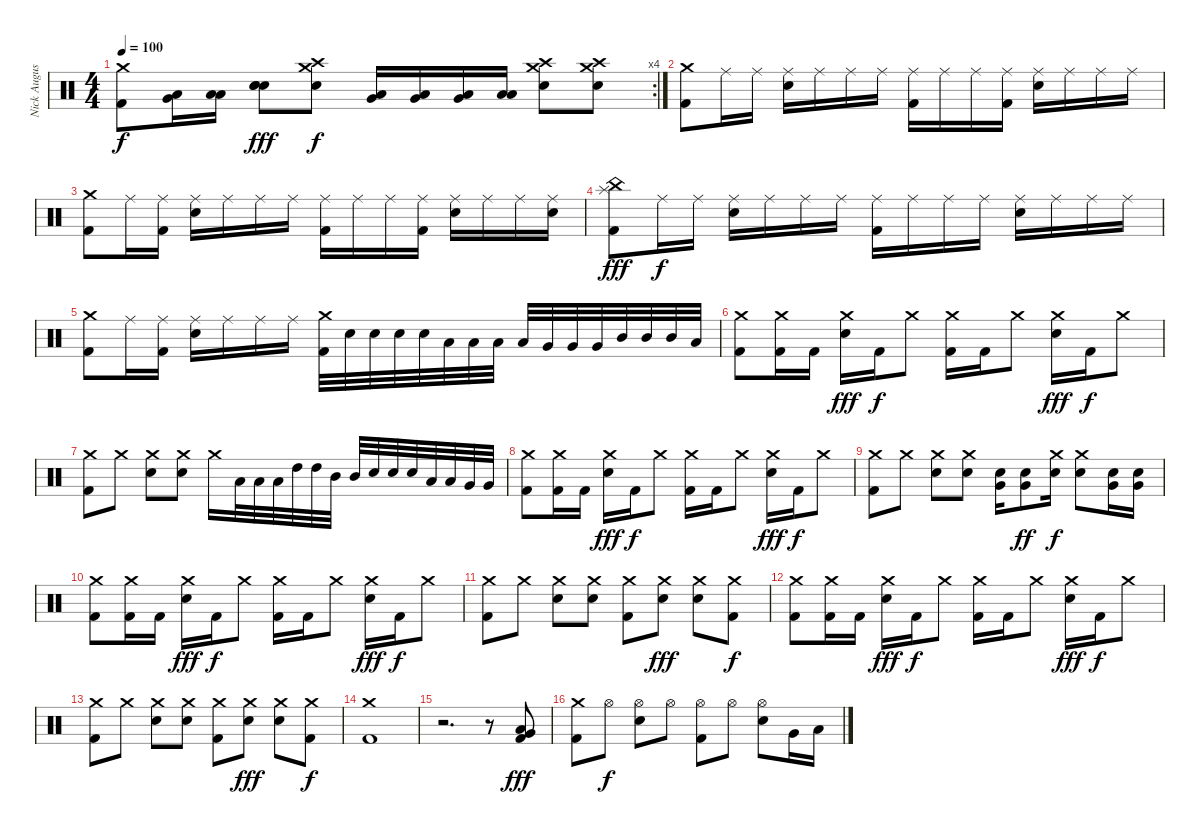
\track ("Nick Augusto" "Nick Augus") {instrument percussion}
\staff {score}
\articulation defaults
\rc 4
\ts (4 4)
\tempo 100
\clef neutral
\ks c
("Kick (hit) 2" "Crash medium (hit)").8{dy f} ("Low Tom (hit)" "Very Low Tom (hit)").16 ("Low Tom (hit)" "Low Tom (hit)").16 ("Electric Snare (hit)" "Electric Snare (hit)" "Electric Snare (hit)").8{dy fff} ("Electric Snare (hit)" "Crash medium (hit)" "Crash high (hit)").8{dy f} ("Low Tom (hit)" "Very Low Tom (hit)").16 ("Low Tom (hit)" "Very Low Tom (hit)").16 ("Low Tom (hit)" "Very Low Tom (hit)").16 ("Low Tom (hit)" "Low Tom (hit)").16 ("Electric Snare (hit)" "Crash medium (hit)" "Crash high (hit)").8 ("Electric Snare (hit)" "Crash medium (hit)" "Crash high (hit)").8 |
("Kick (hit) 2" "Crash medium (hit)").8 "Ride (middle)".16 "Ride (middle)".16 ("Electric Snare (hit)" "Ride (middle)").16 "Ride (middle)".16 "Ride (middle)".16 "Ride (middle)".16 ("Kick (hit) 2" "Ride (middle)").16 "Ride (middle)".16 "Ride (middle)".16 ("Kick (hit) 2" "Ride (middle)").16 ("Electric Snare (hit)" "Ride (middle)").16 "Ride (middle)".16 "Ride (middle)".16 "Ride (middle)".16 |
("Kick (hit) 2" "Crash medium (hit)").8 "Ride (middle)".16 ("Kick (hit) 2" "Ride (middle)").16 ("Electric Snare (hit)" "Ride (middle)").16 "Ride (middle)".16 "Ride (middle)".16 "Ride (middle)".16 ("Kick (hit) 2" "Ride (middle)").16 "Ride (middle)".16 "Ride (middle)".16 ("Kick (hit) 2" "Ride (middle)").16 ("Electric Snare (hit)" "Ride (middle)").16 "Ride (middle)".16 "Ride (middle)".16 ("Electric Snare (hit)" "Ride (middle)").16 |
("China (hit)" "Kick (hit) 2" "Splash (hit)").8{dy fff} "Ride (middle)".16{dy f} "Ride (middle)".16 ("Electric Snare (hit)" "Ride (middle)").16 "Ride (middle)".16 "Ride (middle)".16 "Ride (middle)".16 ("Kick (hit) 2" "Ride (middle)").16 "Ride (middle)".16 "Ride (middle)".16 "Ride (middle)".16 ("Electric Snare (hit)" "Ride (middle)").16 "Ride (middle)".16 "Ride (middle)".16 "Ride (middle)".16 |
("Kick (hit) 2" "Crash medium (hit)").8 "Ride (middle)".16 ("Kick (hit) 2" "Ride (middle)").16 ("Electric Snare (hit)" "Ride (middle)").16 "Ride (middle)".16 "Ride (middle)".16 "Ride (middle)".16 ("Kick (hit) 2" "Crash medium (hit)").32 "Electric Snare (hit)".32 "Electric Snare (hit)".32 "Electric Snare (hit)".32 "Electric Snare (hit)".32 "Low Tom (hit)".32 "Low Tom (hit)".32 "Low Tom (hit)".32 "Low Tom (hit)".32 "Very Low Tom (hit)".32 "Very Low Tom (hit)".32 "Very Low Tom (hit)".32 "Mid Tom (hit)".32 "Mid Tom (hit)".32 "Mid Tom (hit)".32 "Low Tom (hit)".32 |
("Crash medium (hit)" "Kick (hit) 2").8 ("Crash medium (hit)" "Kick (hit) 2").16 "Kick (hit) 2".16 ("Crash medium (hit)" "Electric Snare (hit)").16{dy fff} "Kick (hit) 2".16{dy f} "Crash medium (hit)".8 ("Crash medium (hit)" "Kick (hit) 2").16 "Kick (hit) 2".16 "Crash medium (hit)".8 ("Crash medium (hit)" "Electric Snare (hit)").16{dy fff} "Kick (hit) 2".16{dy f} "Crash medium (hit)".8 |
("Crash medium (hit)" "Kick (hit) 2").8 "Crash medium (hit)".8 ("Crash medium (hit)" "Electric Snare (hit)").8 ("Crash medium (hit)" "Electric Snare (hit)").8 "Crash medium (hit)".16 "Low Tom (hit)".32 "Low Tom (hit)".32 "Low Tom (hit)".32 "High Tom (hit)".32 "High Tom (hit)".32 "Mid Tom (hit)".32 "Mid Tom (hit)".32 "Electric Snare (hit)".32 "Electric Snare (hit)".32 "Electric Snare (hit)".32 "Low Tom (hit)".32 "Low Tom (hit)".32 "Very Low Tom (hit)".32 "Very Low Tom (hit)".32 |
("Crash medium (hit)" "Kick (hit) 2").8 ("Crash medium (hit)" "Kick (hit) 2").16 "Kick (hit) 2".16 ("Crash medium (hit)" "Electric Snare (hit)").16{dy fff} "Kick (hit) 2".16{dy f} "Crash medium (hit)".8 ("Crash medium (hit)" "Kick (hit) 2").16 "Kick (hit) 2".16 "Crash medium (hit)".8 ("Crash medium (hit)" "Electric Snare (hit)").16{dy fff} "Kick (hit) 2".16{dy f} "Crash medium (hit)".8 |
("Crash medium (hit)" "Kick (hit) 2").8 "Crash medium (hit)".8 ("Crash medium (hit)" "Electric Snare (hit)").8 ("Crash medium (hit)" "Electric Snare (hit)").8 ("Very Low Tom (hit)" "Electric Snare (hit)").16 ("Very Low Tom (hit)" "Electric Snare (hit)").8{dy ff} ("Electric Snare (hit)" "Crash medium (hit)").16{dy f} ("Electric Snare (hit)" "Crash medium (hit)").8 ("Very Low Tom (hit)" "Electric Snare (hit)").16 ("Very Low Tom (hit)" "Electric Snare (hit)").16 |
("Crash medium (hit)" "Kick (hit) 2").8 ("Crash medium (hit)" "Kick (hit) 2").16 "Kick (hit) 2".16 ("Crash medium (hit)" "Electric Snare (hit)").16{dy fff} "Kick (hit) 2".16{dy f} "Crash medium (hit)".8 ("Crash medium (hit)" "Kick (hit) 2").16 "Kick (hit) 2".16 "Crash medium (hit)".8 ("Crash medium (hit)" "Electric Snare (hit)").16{dy fff} "Kick (hit) 2".16{dy f} "Crash medium (hit)".8 |
("Crash medium (hit)" "Kick (hit) 2").8 "Crash medium (hit)".8 ("Crash medium (hit)" "Electric Snare (hit)").8 ("Crash medium (hit)" "Electric Snare (hit)").8 ("Crash medium (hit)" "Kick (hit) 2").8 ("Crash medium (hit)" "Electric Snare (hit)").8{dy fff} ("Crash medium (hit)" "Electric Snare (hit)").8 ("Crash medium (hit)" "Kick (hit) 2").8{dy f} |
("Crash medium (hit)" "Kick (hit) 2").8 ("Crash medium (hit)" "Kick (hit) 2").16 "Kick (hit) 2".16 ("Crash medium (hit)" "Electric Snare (hit)").16{dy fff} "Kick (hit) 2".16{dy f} "Crash medium (hit)".8 ("Crash medium (hit)" "Kick (hit) 2").16 "Kick (hit) 2".16 "Crash medium (hit)".8 ("Crash medium (hit)" "Electric Snare (hit)").16{dy fff} "Kick (hit) 2".16{dy f} "Crash medium (hit)".8 |
("Crash medium (hit)" "Kick (hit) 2").8 "Crash medium (hit)".8 ("Crash medium (hit)" "Electric Snare (hit)").8 ("Crash medium (hit)" "Electric Snare (hit)").8 ("Crash medium (hit)" "Kick (hit) 2").8 ("Crash medium (hit)" "Electric Snare (hit)").8{dy fff} ("Crash medium (hit)" "Electric Snare (hit)").8 ("Crash medium (hit)" "Kick (hit) 2").8{dy f} |
("Crash medium (hit)" "Kick (hit) 2").1 |
r.2{d} r.8 ("Kick (hit) 2" "Very Low Tom (hit)" "Low Floor Tom (hit)").8{dy fff} |
("Crash medium (hit)" "Kick (hit) 2").8 "Hi-Hat (open)".8{dy f} ("Electric Snare (hit)" "Hi-Hat (open)").8 "Hi-Hat (open)".8 ("Kick (hit) 2" "Hi-Hat (open)").8 "Hi-Hat (open)".8 ("Electric Snare (hit)" "Hi-Hat (open)").8 "Very Low Tom (hit)".16 "Low Tom (hit)".16
